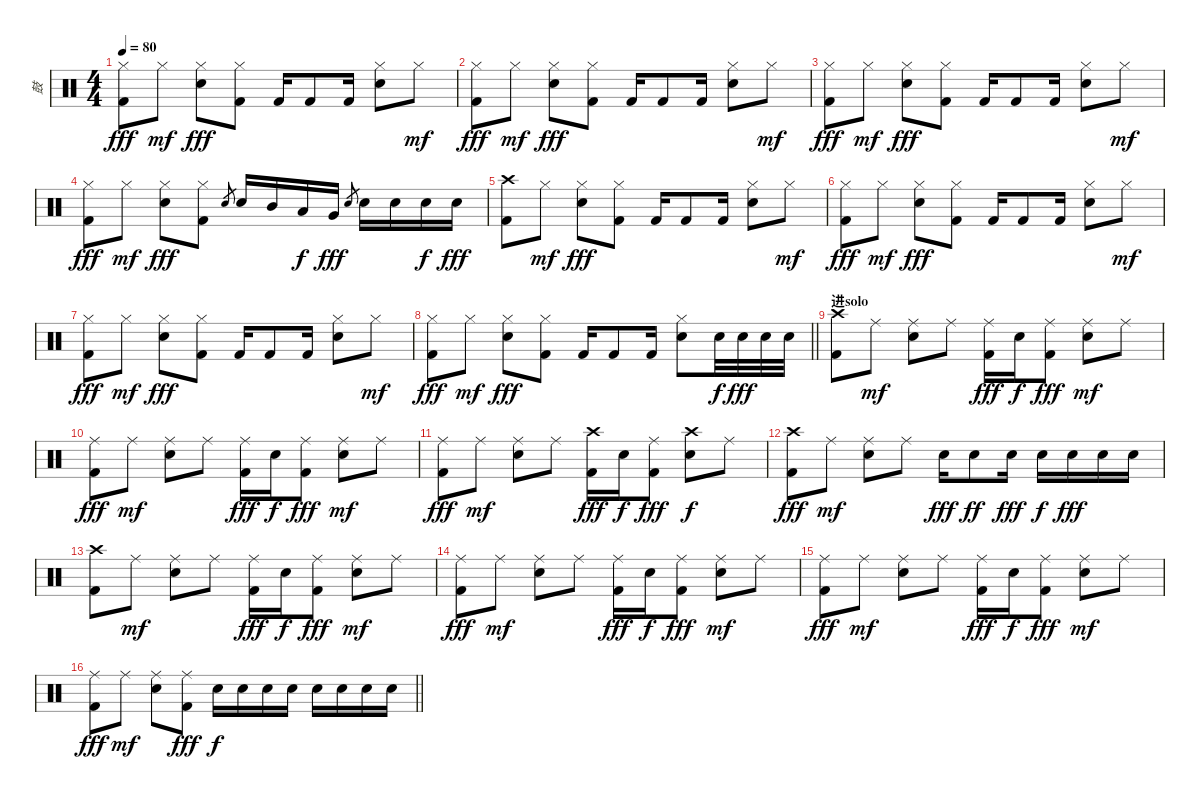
\track ("鼓" "鼓") {instrument percussion}
\staff {score}
\articulation defaults
\ts (4 4)
\tempo 80
\clef neutral
\ks c
("Hi-Hat (closed)" "Kick (hit) 2").8{dy fff} "Hi-Hat (closed)".8{dy mf} ("Hi-Hat (closed)" "Electric Snare (hit)").8{dy fff} ("Hi-Hat (closed)" "Kick (hit) 2").8 "Kick (hit) 2".16 "Kick (hit) 2".8 "Kick (hit) 2".16 ("Hi-Hat (closed)" "Electric Snare (hit)").8 "Hi-Hat (closed)".8{dy mf} |
("Hi-Hat (closed)" "Kick (hit) 2").8{dy fff} "Hi-Hat (closed)".8{dy mf} ("Hi-Hat (closed)" "Electric Snare (hit)").8{dy fff} ("Hi-Hat (closed)" "Kick (hit) 2").8 "Kick (hit) 2".16 "Kick (hit) 2".8 "Kick (hit) 2".16 ("Hi-Hat (closed)" "Electric Snare (hit)").8 "Hi-Hat (closed)".8{dy mf} |
("Hi-Hat (closed)" "Kick (hit) 2").8{dy fff} "Hi-Hat (closed)".8{dy mf} ("Hi-Hat (closed)" "Electric Snare (hit)").8{dy fff} ("Hi-Hat (closed)" "Kick (hit) 2").8 "Kick (hit) 2".16 "Kick (hit) 2".8 "Kick (hit) 2".16 ("Hi-Hat (closed)" "Electric Snare (hit)").8 "Hi-Hat (closed)".8{dy mf} |
("Hi-Hat (closed)" "Kick (hit) 2").8{dy fff} "Hi-Hat (closed)".8{dy mf} ("Hi-Hat (closed)" "Electric Snare (hit)").8{dy fff} ("Hi-Hat (closed)" "Kick (hit) 2").8 "Electric Snare (hit)".8{gr} "Electric Snare (hit)".16 "Mid Tom (hit)".16 "Low Tom (hit)".16{dy f} "Very Low Tom (hit)".16{dy fff} "Electric Snare (hit)".8{gr} "Electric Snare (hit)".16 "Electric Snare (hit)".16 "Electric Snare (hit)".16{dy f} "Electric Snare (hit)".16{dy fff} |
("Crash high (hit)" "Kick (hit) 2").8 "Hi-Hat (closed)".8{dy mf} ("Hi-Hat (closed)" "Electric Snare (hit)").8{dy fff} ("Hi-Hat (closed)" "Kick (hit) 2").8 "Kick (hit) 2".16 "Kick (hit) 2".8 "Kick (hit) 2".16 ("Hi-Hat (closed)" "Electric Snare (hit)").8 "Hi-Hat (closed)".8{dy mf} |
("Hi-Hat (closed)" "Kick (hit) 2").8{dy fff} "Hi-Hat (closed)".8{dy mf} ("Hi-Hat (closed)" "Electric Snare (hit)").8{dy fff} ("Hi-Hat (closed)" "Kick (hit) 2").8 "Kick (hit) 2".16 "Kick (hit) 2".8 "Kick (hit) 2".16 ("Hi-Hat (closed)" "Electric Snare (hit)").8 "Hi-Hat (closed)".8{dy mf} |
("Hi-Hat (closed)" "Kick (hit) 2").8{dy fff} "Hi-Hat (closed)".8{dy mf} ("Hi-Hat (closed)" "Electric Snare (hit)").8{dy fff} ("Hi-Hat (closed)" "Kick (hit) 2").8 "Kick (hit) 2".16 "Kick (hit) 2".8 "Kick (hit) 2".16 ("Hi-Hat (closed)" "Electric Snare (hit)").8 "Hi-Hat (closed)".8{dy mf} |
\barLineRight lightlight
("Hi-Hat (closed)" "Kick (hit) 2").8{dy fff} "Hi-Hat (closed)".8{dy mf} ("Hi-Hat (closed)" "Snare (hit) 2").8{dy fff} ("Hi-Hat (closed)" "Kick (hit) 2").8 "Kick (hit) 2".16 "Kick (hit) 2".8 "Kick (hit) 2".16 ("Hi-Hat (closed)" "Electric Snare (hit)").8 "Electric Snare (hit)".32{dy f} "Electric Snare (hit)".32{dy fff} "Electric Snare (hit)".32 "Electric Snare (hit)".32 |
\section ("" "进solo")
("Crash high (hit)" "Kick (hit) 2").8 "Ride (middle)".8{dy mf} ("Ride (middle)" "Electric Snare (hit)").8 "Ride (middle)".8 ("Ride (middle)" "Kick (hit) 2").16{dy fff} "Electric Snare (hit)".16{dy f} ("Ride (middle)" "Kick (hit) 2").8{dy fff} ("Ride (middle)" "Electric Snare (hit)").8{dy mf} "Ride (middle)".8 |
("Ride (middle)" "Kick (hit) 2").8{dy fff} "Ride (middle)".8{dy mf} ("Ride (middle)" "Electric Snare (hit)").8 "Ride (middle)".8 ("Ride (middle)" "Kick (hit) 2").16{dy fff} "Electric Snare (hit)".16{dy f} ("Ride (middle)" "Kick (hit) 2").8{dy fff} ("Ride (middle)" "Electric Snare (hit)").8{dy mf} "Ride (middle)".8 |
("Ride (middle)" "Kick (hit) 2").8{dy fff} "Ride (middle)".8{dy mf} ("Ride (middle)" "Electric Snare (hit)").8 "Ride (middle)".8 ("Crash high (hit)" "Kick (hit) 2").16{dy fff} "Electric Snare (hit)".16{dy f} ("Ride (middle)" "Kick (hit) 2").8{dy fff} ("Crash high (hit)" "Electric Snare (hit)").8{dy f} "Ride (middle)".8 |
("Crash high (hit)" "Kick (hit) 2").8{dy fff} "Ride (middle)".8{dy mf} ("Ride (middle)" "Electric Snare (hit)").8 "Ride (middle)".8 "Electric Snare (hit)".16{dy fff} "Electric Snare (hit)".8{dy ff} "Electric Snare (hit)".16{dy fff} "Electric Snare (hit)".16{dy f} "Electric Snare (hit)".16{dy fff} "Electric Snare (hit)".16 "Electric Snare (hit)".16 |
("Crash high (hit)" "Kick (hit) 2").8 "Ride (middle)".8{dy mf} ("Ride (middle)" "Electric Snare (hit)").8 "Ride (middle)".8 ("Ride (middle)" "Kick (hit) 2").16{dy fff} "Electric Snare (hit)".16{dy f} ("Ride (middle)" "Kick (hit) 2").8{dy fff} ("Ride (middle)" "Electric Snare (hit)").8{dy mf} "Ride (middle)".8 |
("Ride (middle)" "Kick (hit) 2").8{dy fff} "Ride (middle)".8{dy mf} ("Ride (middle)" "Electric Snare (hit)").8 "Ride (middle)".8 ("Ride (middle)" "Kick (hit) 2").16{dy fff} "Electric Snare (hit)".16{dy f} ("Ride (middle)" "Kick (hit) 2").8{dy fff} ("Ride (middle)" "Electric Snare (hit)").8{dy mf} "Ride (middle)".8 |
("Ride (middle)" "Kick (hit) 2").8{dy fff} "Ride (middle)".8{dy mf} ("Ride (middle)" "Electric Snare (hit)").8 "Ride (middle)".8 ("Ride (middle)" "Kick (hit) 2").16{dy fff} "Electric Snare (hit)".16{dy f} ("Ride (middle)" "Kick (hit) 2").8{dy fff} ("Ride (middle)" "Electric Snare (hit)").8{dy mf} "Ride (middle)".8 |
\barLineRight lightlight
("Ride (middle)" "Kick (hit) 2").8{dy fff} "Ride (middle)".8{dy mf} ("Ride (middle)" "Electric Snare (hit)").8 ("Ride (middle)" "Kick (hit) 2").8{dy fff} "Electric Snare (hit)".16{dy f} "Electric Snare (hit)".16 "Electric Snare (hit)".16 "Electric Snare (hit)".16 "Electric Snare (hit)".16 "Electric Snare (hit)".16 "Electric Snare (hit)".16 "Electric Snare (hit)".16
